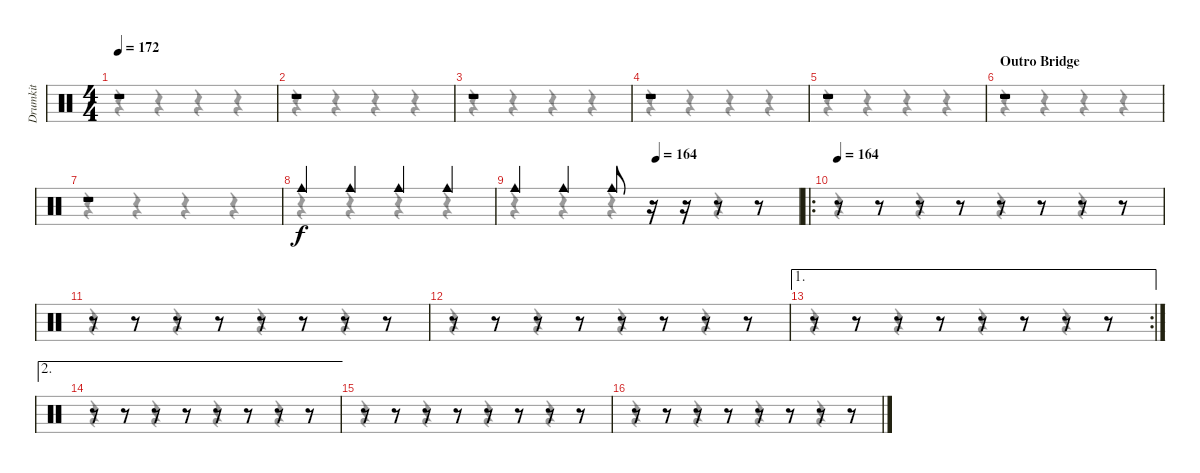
\track ("Drumkit" "Drumkit") {instrument percussion}
\staff {score}
\articulation defaults
\voice
\ts (4 4)
\tempo 172
\clef neutral
\ks c
r.1{dy f} |
r.1 |
r.1 |
r.1 |
r.1 |
\section ("" "Outro Bridge")
r.1 |
r.1 |
"Cowbell medium (hit)".4 "Cowbell medium (hit)".4 "Cowbell medium (hit)".4 "Cowbell medium (hit)".4 |
\tempo (164 0.5)
"Cowbell medium (hit)".4 "Cowbell medium (hit)".4 "Cowbell medium (hit)".8 r.16 r.16 r.8 r.8 |
\ro
\tempo 164
r.8 r.8 r.8 r.8 r.8 r.8 r.8 r.8 |
r.8 r.8 r.8 r.8 r.8 r.8 r.8 r.8 |
r.8 r.8 r.8 r.8 r.8 r.8 r.8 r.8 |
\ae 1
\rc 2
r.8 r.8 r.8 r.8 r.8 r.8 r.8 r.8 |
\ae 2
r.8 r.8 r.8 r.8 r.8 r.8 r.8 r.8 |
r.8 r.8 r.8 r.8 r.8 r.8 r.8 r.8 |
r.8 r.8 r.8 r.8 r.8 r.8 r.8 r.8
\voice
\clef neutral
\ottava regular
\simile none
\ks c
r.4{dy f} r.4 r.4 r.4 |
r.4 r.4 r.4 r.4 |
r.4 r.4 r.4 r.4 |
r.4 r.4 r.4 r.4 |
r.4 r.4 r.4 r.4 |
r.4 r.4 r.4 r.4 |
r.4 r.4 r.4 r.4 |
r.4 r.4 r.4 r.4 |
r.4 r.4 r.4 r.4 |
r.4 r.4 r.4 r.4 |
r.4 r.4 r.4 r.4 |
r.4 r.4 r.4 r.4 |
r.4 r.4 r.4 r.4 |
r.4 r.4 r.4 r.4 |
r.4 r.4 r.4 r.4 |
r.4 r.4 r.4 r.4
